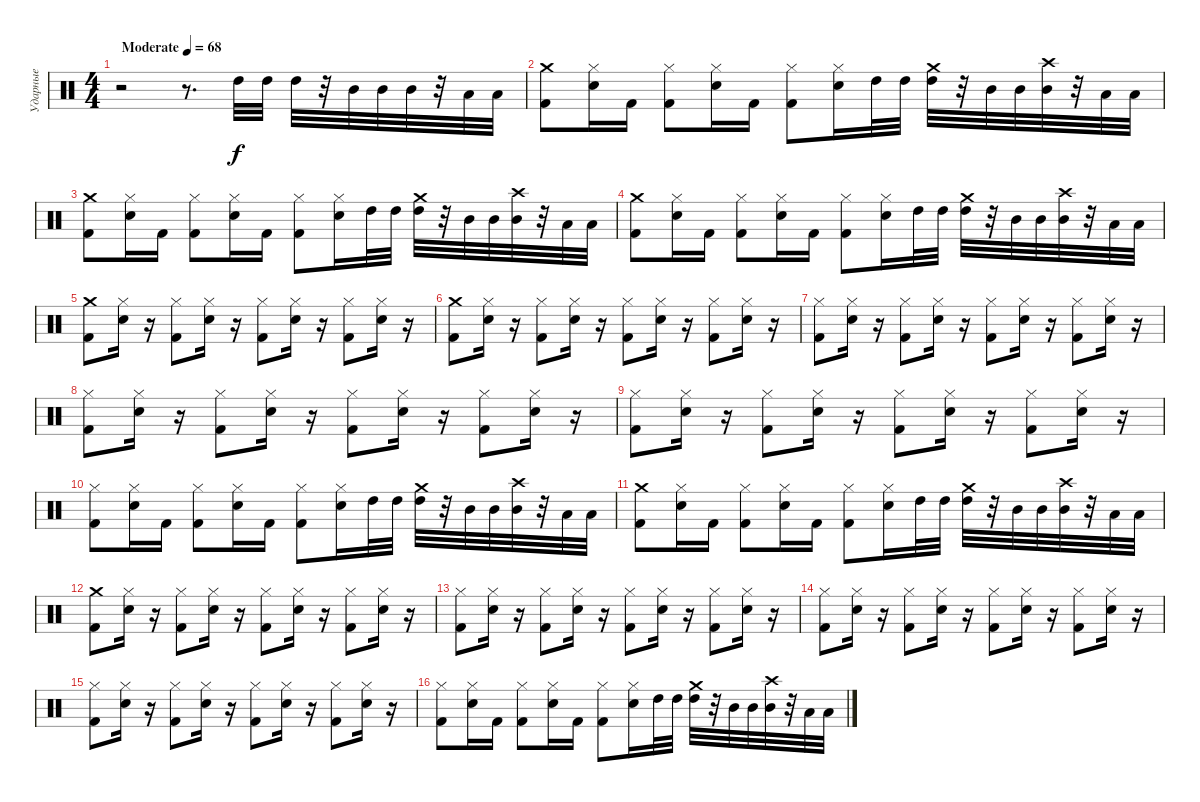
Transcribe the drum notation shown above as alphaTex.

\track ("Ударные" "Ударные") {instrument percussion}
\staff {score}
\articulation defaults
\ts (4 4)
\tempo (68 "Moderate")
\clef neutral
\ks c
r.2{dy f} r.8{d} "High Tom (hit)".32 "High Tom (hit)".32 "High Tom (hit)".32 r.32 "Mid Tom (hit)".32 "Mid Tom (hit)".32 "Mid Tom (hit)".32 r.32 "Low Tom (hit)".32 "Low Tom (hit)".32 |
("Crash medium (hit)" "Kick (hit) 2").8 ("Hi-Hat (closed)" "Snare (hit) 2").16 "Kick (hit) 2".16 ("Hi-Hat (closed)" "Kick (hit) 2").8 ("Hi-Hat (closed)" "Snare (hit) 2").16 "Kick (hit) 2".16 ("Hi-Hat (closed)" "Kick (hit) 2").8 ("Hi-Hat (closed)" "Snare (hit) 2").16 "High Tom (hit)".32 "High Tom (hit)".32 ("High Tom (hit)" "Crash medium (hit)").32 r.32 "Mid Tom (hit)".32 "Mid Tom (hit)".32 ("Mid Tom (hit)" "Crash high (hit)").32 r.32 "Low Tom (hit)".32 "Low Tom (hit)".32 |
("Crash medium (hit)" "Kick (hit) 2").8 ("Hi-Hat (closed)" "Snare (hit) 2").16 "Kick (hit) 2".16 ("Hi-Hat (closed)" "Kick (hit) 2").8 ("Hi-Hat (closed)" "Snare (hit) 2").16 "Kick (hit) 2".16 ("Hi-Hat (closed)" "Kick (hit) 2").8 ("Hi-Hat (closed)" "Snare (hit) 2").16 "High Tom (hit)".32 "High Tom (hit)".32 ("High Tom (hit)" "Crash medium (hit)").32 r.32 "Mid Tom (hit)".32 "Mid Tom (hit)".32 ("Mid Tom (hit)" "Crash high (hit)").32 r.32 "Low Tom (hit)".32 "Low Tom (hit)".32 |
("Crash medium (hit)" "Kick (hit) 2").8 ("Hi-Hat (closed)" "Snare (hit) 2").16 "Kick (hit) 2".16 ("Hi-Hat (closed)" "Kick (hit) 2").8 ("Hi-Hat (closed)" "Snare (hit) 2").16 "Kick (hit) 2".16 ("Hi-Hat (closed)" "Kick (hit) 2").8 ("Hi-Hat (closed)" "Snare (hit) 2").16 "High Tom (hit)".32 "High Tom (hit)".32 ("High Tom (hit)" "Crash medium (hit)").32 r.32 "Mid Tom (hit)".32 "Mid Tom (hit)".32 ("Mid Tom (hit)" "Crash high (hit)").32 r.32 "Low Tom (hit)".32 "Low Tom (hit)".32 |
("Crash medium (hit)" "Kick (hit) 2").8 ("Hi-Hat (closed)" "Snare (hit) 2").16 r.16 ("Hi-Hat (closed)" "Kick (hit) 2").8 ("Hi-Hat (closed)" "Snare (hit) 2").16 r.16 ("Hi-Hat (closed)" "Kick (hit) 2").8 ("Hi-Hat (closed)" "Snare (hit) 2").16 r.16 ("Hi-Hat (closed)" "Kick (hit) 2").8 ("Hi-Hat (closed)" "Snare (hit) 2").16 r.16 |
("Crash medium (hit)" "Kick (hit) 2").8 ("Hi-Hat (closed)" "Snare (hit) 2").16 r.16 ("Hi-Hat (closed)" "Kick (hit) 2").8 ("Hi-Hat (closed)" "Snare (hit) 2").16 r.16 ("Hi-Hat (closed)" "Kick (hit) 2").8 ("Hi-Hat (closed)" "Snare (hit) 2").16 r.16 ("Hi-Hat (closed)" "Kick (hit) 2").8 ("Hi-Hat (closed)" "Snare (hit) 2").16 r.16 |
("Hi-Hat (closed)" "Kick (hit) 2").8 ("Hi-Hat (closed)" "Snare (hit) 2").16 r.16 ("Hi-Hat (closed)" "Kick (hit) 2").8 ("Hi-Hat (closed)" "Snare (hit) 2").16 r.16 ("Hi-Hat (closed)" "Kick (hit) 2").8 ("Hi-Hat (closed)" "Snare (hit) 2").16 r.16 ("Hi-Hat (closed)" "Kick (hit) 2").8 ("Hi-Hat (closed)" "Snare (hit) 2").16 r.16 |
("Hi-Hat (closed)" "Kick (hit) 2").8 ("Hi-Hat (closed)" "Snare (hit) 2").16 r.16 ("Hi-Hat (closed)" "Kick (hit) 2").8 ("Hi-Hat (closed)" "Snare (hit) 2").16 r.16 ("Hi-Hat (closed)" "Kick (hit) 2").8 ("Hi-Hat (closed)" "Snare (hit) 2").16 r.16 ("Hi-Hat (closed)" "Kick (hit) 2").8 ("Hi-Hat (closed)" "Snare (hit) 2").16 r.16 |
("Hi-Hat (closed)" "Kick (hit) 2").8 ("Hi-Hat (closed)" "Snare (hit) 2").16 r.16 ("Hi-Hat (closed)" "Kick (hit) 2").8 ("Hi-Hat (closed)" "Snare (hit) 2").16 r.16 ("Hi-Hat (closed)" "Kick (hit) 2").8 ("Hi-Hat (closed)" "Snare (hit) 2").16 r.16 ("Hi-Hat (closed)" "Kick (hit) 2").8 ("Hi-Hat (closed)" "Snare (hit) 2").16 r.16 |
("Hi-Hat (closed)" "Kick (hit) 2").8 ("Hi-Hat (closed)" "Snare (hit) 2").16 "Kick (hit) 2".16 ("Hi-Hat (closed)" "Kick (hit) 2").8 ("Hi-Hat (closed)" "Snare (hit) 2").16 "Kick (hit) 2".16 ("Hi-Hat (closed)" "Kick (hit) 2").8 ("Hi-Hat (closed)" "Snare (hit) 2").16 "High Tom (hit)".32 "High Tom (hit)".32 ("High Tom (hit)" "Crash medium (hit)").32 r.32 "Mid Tom (hit)".32 "Mid Tom (hit)".32 ("Mid Tom (hit)" "Crash high (hit)").32 r.32 "Low Tom (hit)".32 "Low Tom (hit)".32 |
("Crash medium (hit)" "Kick (hit) 2").8 ("Hi-Hat (closed)" "Snare (hit) 2").16 "Kick (hit) 2".16 ("Hi-Hat (closed)" "Kick (hit) 2").8 ("Hi-Hat (closed)" "Snare (hit) 2").16 "Kick (hit) 2".16 ("Hi-Hat (closed)" "Kick (hit) 2").8 ("Hi-Hat (closed)" "Snare (hit) 2").16 "High Tom (hit)".32 "High Tom (hit)".32 ("High Tom (hit)" "Crash medium (hit)").32 r.32 "Mid Tom (hit)".32 "Mid Tom (hit)".32 ("Mid Tom (hit)" "Crash high (hit)").32 r.32 "Low Tom (hit)".32 "Low Tom (hit)".32 |
("Crash medium (hit)" "Kick (hit) 2").8 ("Hi-Hat (closed)" "Snare (hit) 2").16 r.16 ("Hi-Hat (closed)" "Kick (hit) 2").8 ("Hi-Hat (closed)" "Snare (hit) 2").16 r.16 ("Hi-Hat (closed)" "Kick (hit) 2").8 ("Hi-Hat (closed)" "Snare (hit) 2").16 r.16 ("Hi-Hat (closed)" "Kick (hit) 2").8 ("Hi-Hat (closed)" "Snare (hit) 2").16 r.16 |
("Hi-Hat (closed)" "Kick (hit) 2").8 ("Hi-Hat (closed)" "Snare (hit) 2").16 r.16 ("Hi-Hat (closed)" "Kick (hit) 2").8 ("Hi-Hat (closed)" "Snare (hit) 2").16 r.16 ("Hi-Hat (closed)" "Kick (hit) 2").8 ("Hi-Hat (closed)" "Snare (hit) 2").16 r.16 ("Hi-Hat (closed)" "Kick (hit) 2").8 ("Hi-Hat (closed)" "Snare (hit) 2").16 r.16 |
("Hi-Hat (closed)" "Kick (hit) 2").8 ("Hi-Hat (closed)" "Snare (hit) 2").16 r.16 ("Hi-Hat (closed)" "Kick (hit) 2").8 ("Hi-Hat (closed)" "Snare (hit) 2").16 r.16 ("Hi-Hat (closed)" "Kick (hit) 2").8 ("Hi-Hat (closed)" "Snare (hit) 2").16 r.16 ("Hi-Hat (closed)" "Kick (hit) 2").8 ("Hi-Hat (closed)" "Snare (hit) 2").16 r.16 |
("Hi-Hat (closed)" "Kick (hit) 2").8 ("Hi-Hat (closed)" "Snare (hit) 2").16 r.16 ("Hi-Hat (closed)" "Kick (hit) 2").8 ("Hi-Hat (closed)" "Snare (hit) 2").16 r.16 ("Hi-Hat (closed)" "Kick (hit) 2").8 ("Hi-Hat (closed)" "Snare (hit) 2").16 r.16 ("Hi-Hat (closed)" "Kick (hit) 2").8 ("Hi-Hat (closed)" "Snare (hit) 2").16 r.16 |
("Hi-Hat (closed)" "Kick (hit) 2").8 ("Hi-Hat (closed)" "Snare (hit) 2").16 "Kick (hit) 2".16 ("Hi-Hat (closed)" "Kick (hit) 2").8 ("Hi-Hat (closed)" "Snare (hit) 2").16 "Kick (hit) 2".16 ("Hi-Hat (closed)" "Kick (hit) 2").8 ("Hi-Hat (closed)" "Snare (hit) 2").16 "High Tom (hit)".32 "High Tom (hit)".32 ("High Tom (hit)" "Crash medium (hit)").32 r.32 "Mid Tom (hit)".32 "Mid Tom (hit)".32 ("Mid Tom (hit)" "Crash high (hit)").32 r.32 "Low Tom (hit)".32 "Low Tom (hit)".32
